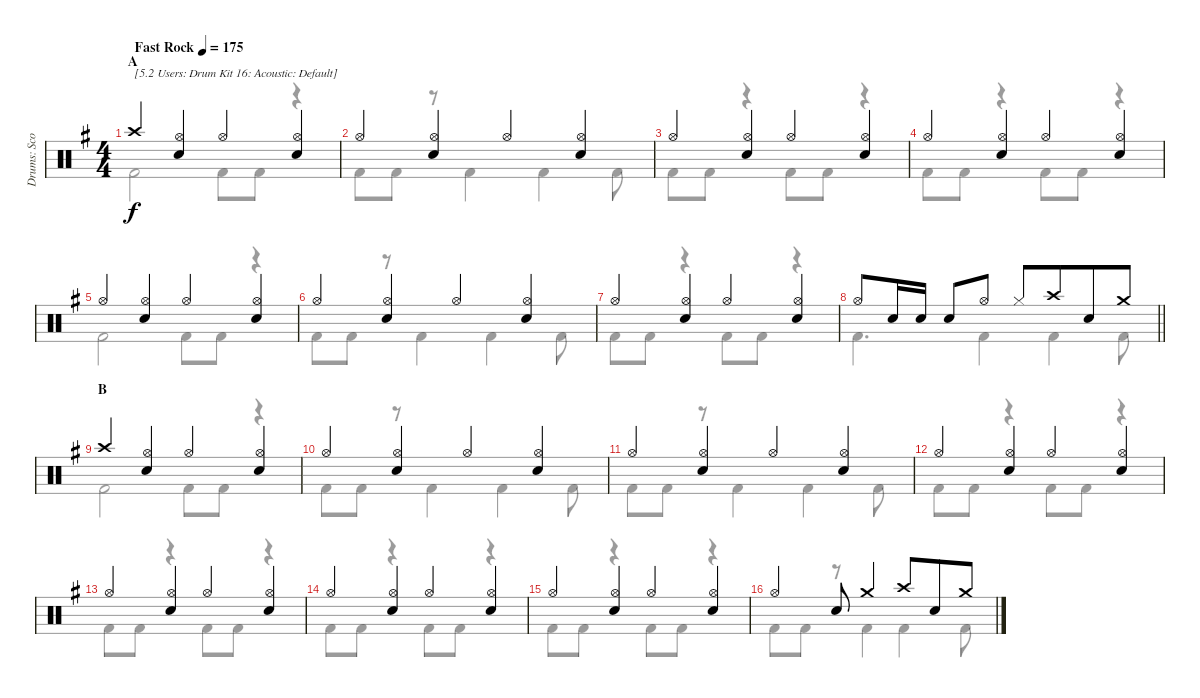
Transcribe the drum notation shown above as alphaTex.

\track ("Drums: Scott" "Drums: Sco") {instrument percussion}
\staff {score}
\articulation defaults
\voice
\ts (4 4)
\section ("" "A")
\tempo (175 "Fast Rock")
\clef neutral
\ks g "Crash high (hit)".4{txt "[5.2 Users: Drum Kit 16: Acoustic: Default]" dy f}
("Hi-Hat (open)" "Snare (hit) 2").4 "Hi-Hat (open)".4 ("Hi-Hat (open)" "Snare (hit) 2").4 |
"Hi-Hat (open)".4 ("Hi-Hat (open)" "Snare (hit) 2").4 "Hi-Hat (open)".4 ("Hi-Hat (open)" "Snare (hit) 2").4 |
"Hi-Hat (open)".4 ("Hi-Hat (open)" "Snare (hit) 2").4 "Hi-Hat (open)".4 ("Hi-Hat (open)" "Snare (hit) 2").4 |
"Hi-Hat (open)".4 ("Hi-Hat (open)" "Snare (hit) 2").4 "Hi-Hat (open)".4 ("Hi-Hat (open)" "Snare (hit) 2").4 |
"Hi-Hat (open)".4 ("Hi-Hat (open)" "Snare (hit) 2").4 "Hi-Hat (open)".4 ("Hi-Hat (open)" "Snare (hit) 2").4 |
"Hi-Hat (open)".4 ("Hi-Hat (open)" "Snare (hit) 2").4 "Hi-Hat (open)".4 ("Hi-Hat (open)" "Snare (hit) 2").4 |
"Hi-Hat (open)".4 ("Hi-Hat (open)" "Snare (hit) 2").4 "Hi-Hat (open)".4 ("Hi-Hat (open)" "Snare (hit) 2").4 |
\barLineRight lightlight "Hi-Hat (open)".8 "Snare (hit) 2".16 "Snare (hit) 2".16 "Snare (hit) 2".8 "Hi-Hat (open)".8 "Hi-Hat (closed)".8 "Crash high (hit)".8{beam merge} "Snare (hit) 2".8 "Crash medium (hit)".8
|
\section ("" "B")
"Crash high (hit)".4 ("Hi-Hat (open)" "Snare (hit) 2").4 "Hi-Hat (open)".4 ("Hi-Hat (open)" "Snare (hit) 2").4 |
"Hi-Hat (open)".4 ("Hi-Hat (open)" "Snare (hit) 2").4 "Hi-Hat (open)".4 ("Hi-Hat (open)" "Snare (hit) 2").4 |
"Hi-Hat (open)".4 ("Hi-Hat (open)" "Snare (hit) 2").4 "Hi-Hat (open)".4 ("Hi-Hat (open)" "Snare (hit) 2").4 |
"Hi-Hat (open)".4 ("Hi-Hat (open)" "Snare (hit) 2").4 "Hi-Hat (open)".4 ("Hi-Hat (open)" "Snare (hit) 2").4 |
"Hi-Hat (open)".4 ("Hi-Hat (open)" "Snare (hit) 2").4 "Hi-Hat (open)".4 ("Hi-Hat (open)" "Snare (hit) 2").4 |
"Hi-Hat (open)".4 ("Hi-Hat (open)" "Snare (hit) 2").4 "Hi-Hat (open)".4 ("Hi-Hat (open)" "Snare (hit) 2").4 |
"Hi-Hat (open)".4 ("Hi-Hat (open)" "Snare (hit) 2").4 "Hi-Hat (open)".4 ("Hi-Hat (open)" "Snare (hit) 2").4 |
"Hi-Hat (open)".4 "Snare (hit) 2".8 "Crash medium (hit)".4 "Crash high (hit)".8{beam merge} "Snare (hit) 2".8 "Crash medium (hit)".8
\voice
\clef neutral
\ottava regular
\simile none
\ks g "Kick (hit) 2".2{dy f} "Kick (hit) 2".8 "Kick (hit) 2".8
r.4 |
"Kick (hit) 2".8 "Kick (hit) 2".8 r.8 "Kick (hit) 2".4 "Kick (hit) 2".4 "Kick (hit) 2".8 |
"Kick (hit) 2".8 "Kick (hit) 2".8 r.4 "Kick (hit) 2".8 "Kick (hit) 2".8 r.4 |
"Kick (hit) 2".8 "Kick (hit) 2".8 r.4 "Kick (hit) 2".8 "Kick (hit) 2".8 r.4 |
"Kick (hit) 2".2 "Kick (hit) 2".8 "Kick (hit) 2".8 r.4 |
"Kick (hit) 2".8 "Kick (hit) 2".8 r.8 "Kick (hit) 2".4 "Kick (hit) 2".4 "Kick (hit) 2".8 |
"Kick (hit) 2".8 "Kick (hit) 2".8 r.4 "Kick (hit) 2".8 "Kick (hit) 2".8 r.4 |
\barLineRight lightlight "Kick (hit) 2".4{d} "Kick (hit) 2".4 "Kick (hit) 2".4 "Kick (hit) 2".8
|
"Kick (hit) 2".2 "Kick (hit) 2".8 "Kick (hit) 2".8 r.4 |
"Kick (hit) 2".8 "Kick (hit) 2".8 r.8 "Kick (hit) 2".4 "Kick (hit) 2".4 "Kick (hit) 2".8 |
"Kick (hit) 2".8 "Kick (hit) 2".8 r.8 "Kick (hit) 2".4 "Kick (hit) 2".4 "Kick (hit) 2".8 |
"Kick (hit) 2".8 "Kick (hit) 2".8 r.4 "Kick (hit) 2".8 "Kick (hit) 2".8 r.4 |
"Kick (hit) 2".8 "Kick (hit) 2".8 r.4 "Kick (hit) 2".8 "Kick (hit) 2".8 r.4 |
"Kick (hit) 2".8 "Kick (hit) 2".8 r.4 "Kick (hit) 2".8 "Kick (hit) 2".8 r.4 |
"Kick (hit) 2".8 "Kick (hit) 2".8 r.4 "Kick (hit) 2".8 "Kick (hit) 2".8 r.4 |
"Kick (hit) 2".8 "Kick (hit) 2".8 r.8 "Kick (hit) 2".4 "Kick (hit) 2".4 "Kick (hit) 2".8
